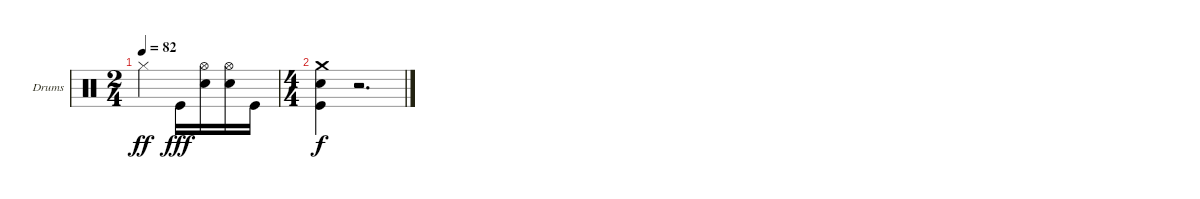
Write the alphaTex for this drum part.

\bracketExtendMode groupsimilarinstruments
\firstSystemTrackNameOrientation horizontal
\otherSystemsTrackNameOrientation horizontal
\track ("Kaleb - Drums" "Drums") {instrument percussion}
\staff {score}
\articulation defaults
\ts (2 4)
\tempo 82
\clef neutral
\ks c "Hi-Hat (closed)".4{dy ff} "Kick (hit)".16{dy fff}
("Snare (hit) 2" "Hi-Hat (open)").16 ("Snare (hit) 2" "Hi-Hat (open)").16 "Kick (hit)".16 |
\ts (4 4)
("Crash medium (hit)" "Kick (hit)" "Snare (hit) 2").4{dy f} r.2{d}
